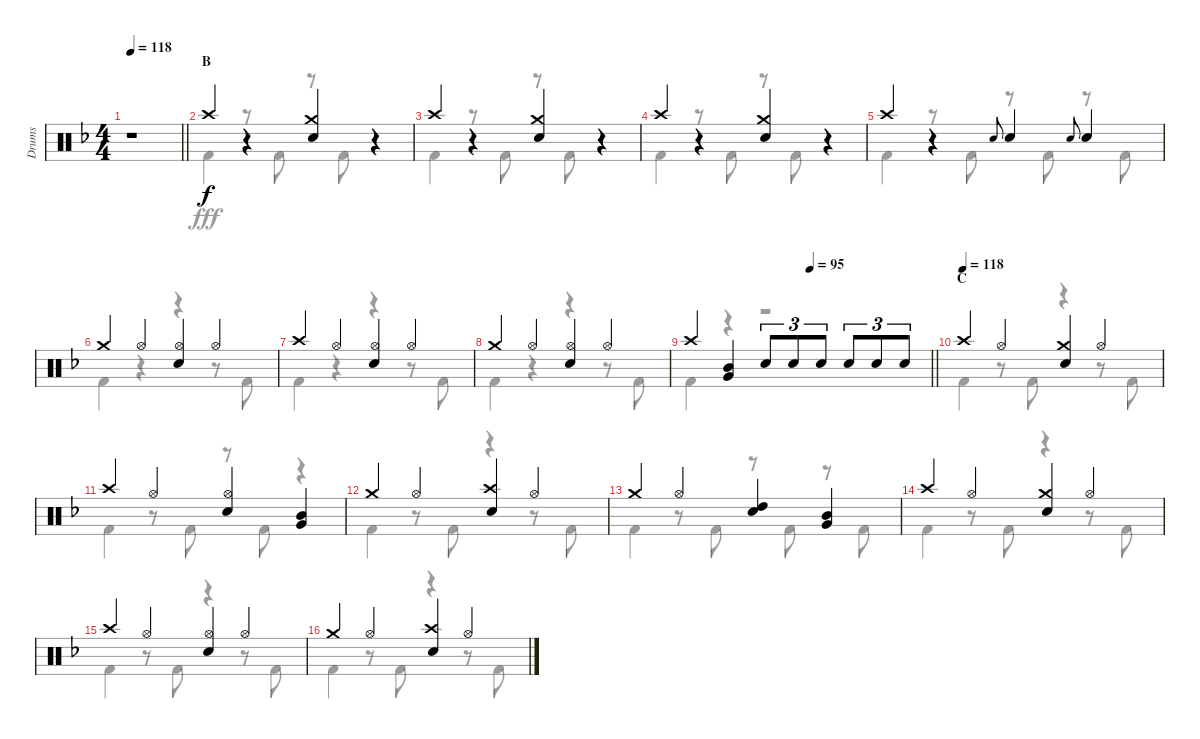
\track ("Drums" "Drums") {instrument percussion}
\staff {score}
\articulation defaults
\voice
\ts (4 4)
\tempo 118
\clef neutral
\barLineRight lightlight
\ks f
r.1{dy f} |
\section ("" "B")
"Crash high (hit)".4 r.4 ("Crash medium (hit)" "Snare (hit) 2").4 r.4 |
"Crash high (hit)".4 r.4 ("Crash medium (hit)" "Snare (hit) 2").4 r.4 |
"Crash high (hit)".4 r.4 ("Crash medium (hit)" "Snare (hit) 2").4 r.4 |
"Crash high (hit)".4 r.4 "Snare (hit) 2".8{gr onbeat} "Snare (hit) 2".4 "Snare (hit) 2".8{gr onbeat} "Snare (hit) 2".4 |
"Crash medium (hit)".4 "Hi-Hat (open)".4 ("Hi-Hat (open)" "Snare (hit) 2").4 "Hi-Hat (open)".4 |
"Crash high (hit)".4 "Hi-Hat (open)".4 ("Hi-Hat (open)" "Snare (hit) 2").4 "Hi-Hat (open)".4 |
"Crash medium (hit)".4 "Hi-Hat (open)".4 ("Hi-Hat (open)" "Snare (hit) 2").4 "Hi-Hat (open)".4 |
\tempo (95 0.5)
\barLineRight lightlight "Crash high (hit)".4
("Mid Tom (hit)" "Very Low Tom (hit)").4 "Snare (hit) 2".8{tu (3 2)} "Snare (hit) 2".8{tu (3 2)} "Snare (hit) 2".8{tu (3 2)} "Snare (hit) 2".8{tu (3 2)} "Snare (hit) 2".8{tu (3 2)} "Snare (hit) 2".8{tu (3 2)} |
\section ("" "C")
\tempo (118)
"Crash high (hit)".4 "Hi-Hat (open)".4 ("Crash medium (hit)" "Snare (hit) 2").4 "Hi-Hat (open)".4 |
"Crash high (hit)".4 "Hi-Hat (open)".4 ("Hi-Hat (open)" "Snare (hit) 2").4 ("Mid Tom (hit)" "Very Low Tom (hit)").4 |
"Crash medium (hit)".4 "Hi-Hat (open)".4 ("Crash high (hit)" "Snare (hit) 2").4 "Hi-Hat (open)".4 |
"Crash medium (hit)".4 "Hi-Hat (open)".4 ("High Tom (hit)" "Snare (hit) 2").4 ("Mid Tom (hit)" "Very Low Tom (hit)").4 |
"Crash high (hit)".4 "Hi-Hat (open)".4 ("Crash medium (hit)" "Snare (hit) 2").4 "Hi-Hat (open)".4 |
"Crash high (hit)".4 "Hi-Hat (open)".4 ("Hi-Hat (open)" "Snare (hit) 2").4 "Hi-Hat (open)".4 |
"Crash medium (hit)".4 "Hi-Hat (open)".4 ("Crash high (hit)" "Snare (hit) 2").4 "Hi-Hat (open)".4
\voice
\clef neutral
\ottava regular
\simile none
\barLineRight lightlight
\ks f
r.1{dy fff} |
"Kick (hit) 2".4 r.8 "Kick (hit) 2".8 r.8 "Kick (hit) 2".8 r.4 |
"Kick (hit) 2".4 r.8 "Kick (hit) 2".8 r.8 "Kick (hit) 2".8 r.4 |
"Kick (hit) 2".4 r.8 "Kick (hit) 2".8 r.8 "Kick (hit) 2".8 r.4 |
"Kick (hit) 2".4 r.8 "Kick (hit) 2".8 r.8 "Kick (hit) 2".8 r.8 "Kick (hit) 2".8 |
"Kick (hit) 2".4 r.4 r.4 r.8 "Kick (hit) 2".8 |
"Kick (hit) 2".4 r.4 r.4 r.8 "Kick (hit) 2".8 |
"Kick (hit) 2".4 r.4 r.4 r.8 "Kick (hit) 2".8 |
\barLineRight lightlight "Kick (hit) 2".4
r.4 r.2 |
"Kick (hit) 2".4 r.8 "Kick (hit) 2".8 r.4 r.8 "Kick (hit) 2".8 |
"Kick (hit) 2".4 r.8 "Kick (hit) 2".8 r.8 "Kick (hit) 2".8 r.4 |
"Kick (hit) 2".4 r.8 "Kick (hit) 2".8 r.4 r.8 "Kick (hit) 2".8 |
"Kick (hit) 2".4 r.8 "Kick (hit) 2".8 r.8 "Kick (hit) 2".8 r.8 "Kick (hit) 2".8 |
"Kick (hit) 2".4 r.8 "Kick (hit) 2".8 r.4 r.8 "Kick (hit) 2".8 |
"Kick (hit) 2".4 r.8 "Kick (hit) 2".8 r.4 r.8 "Kick (hit) 2".8 |
"Kick (hit) 2".4 r.8 "Kick (hit) 2".8 r.4 r.8 "Kick (hit) 2".8
